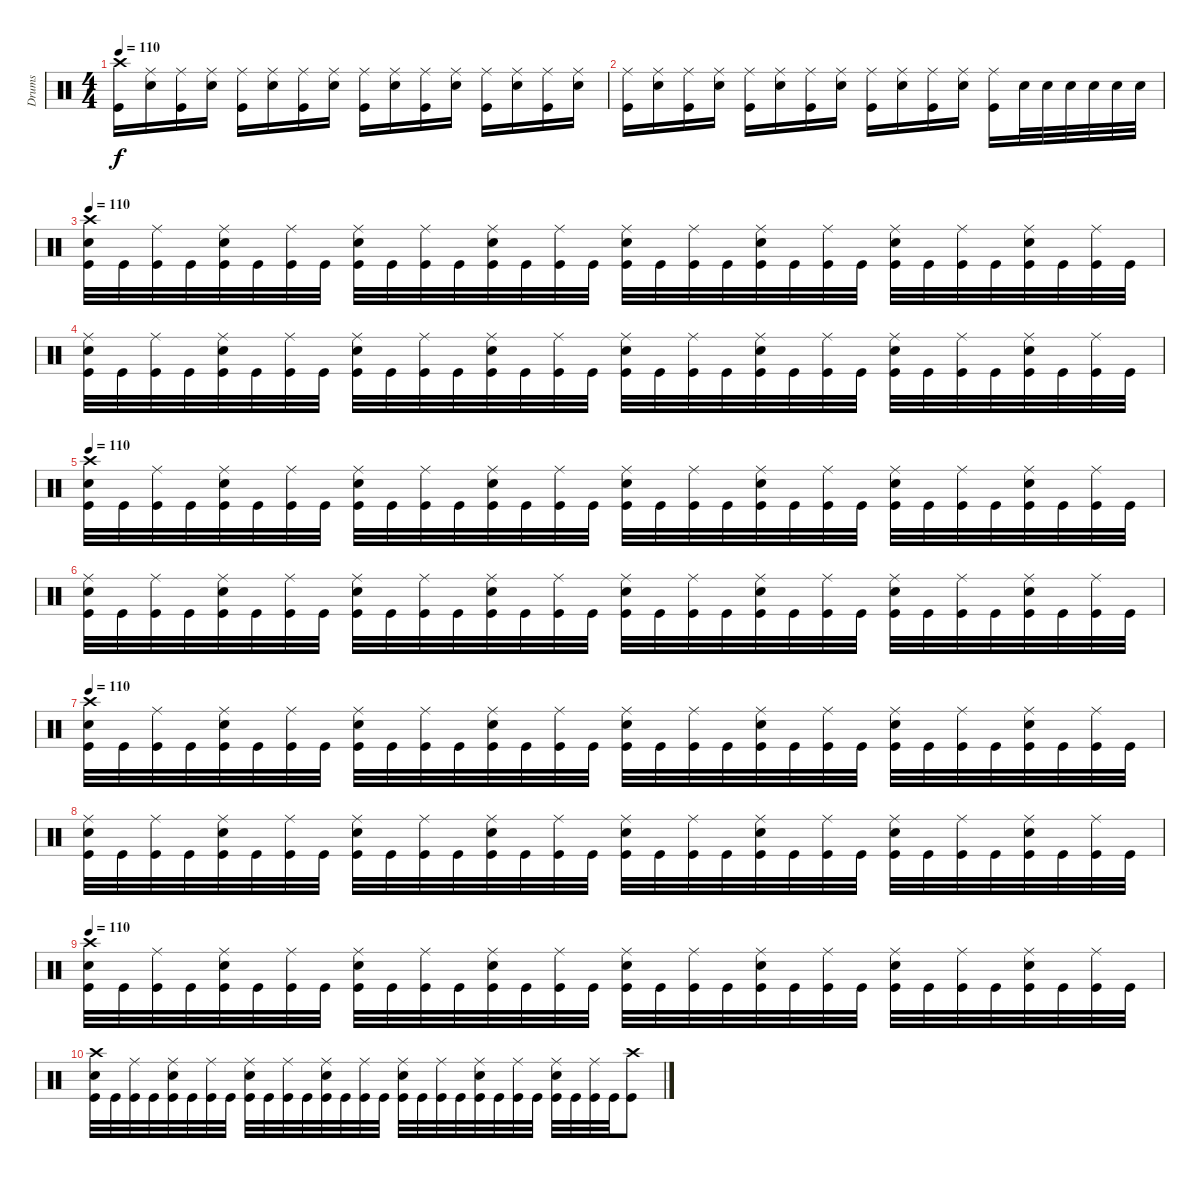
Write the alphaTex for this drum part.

\track ("Drums" "Drums") {instrument percussion}
\staff {score}
\articulation defaults
\ts (4 4)
\tempo 110
\clef neutral
\ks c
("Crash high (hit)" "Kick (hit)").16{dy f} ("Ride (middle)" "Snare (hit) 2").16 ("Ride (middle)" "Kick (hit)").16 ("Ride (middle)" "Snare (hit) 2").16 ("Ride (middle)" "Kick (hit)").16 ("Ride (middle)" "Snare (hit) 2").16 ("Ride (middle)" "Kick (hit)").16 ("Ride (middle)" "Snare (hit) 2").16 ("Ride (middle)" "Kick (hit)").16 ("Ride (middle)" "Snare (hit) 2").16 ("Ride (middle)" "Kick (hit)").16 ("Ride (middle)" "Snare (hit) 2").16 ("Ride (middle)" "Kick (hit)").16 ("Ride (middle)" "Snare (hit) 2").16 ("Ride (middle)" "Kick (hit)").16 ("Ride (middle)" "Snare (hit) 2").16 |
("Ride (middle)" "Kick (hit)").16 ("Ride (middle)" "Snare (hit) 2").16 ("Ride (middle)" "Kick (hit)").16 ("Ride (middle)" "Snare (hit) 2").16 ("Ride (middle)" "Kick (hit)").16 ("Ride (middle)" "Snare (hit) 2").16 ("Ride (middle)" "Kick (hit)").16 ("Ride (middle)" "Snare (hit) 2").16 ("Ride (middle)" "Kick (hit)").16 ("Ride (middle)" "Snare (hit) 2").16 ("Ride (middle)" "Kick (hit)").16 ("Ride (middle)" "Snare (hit) 2").16 ("Ride (middle)" "Kick (hit)").16 "Snare (hit) 2".32 "Snare (hit) 2".32 "Snare (hit) 2".32 "Snare (hit) 2".32 "Snare (hit) 2".32 "Snare (hit) 2".32 |
\tempo 110
("Crash high (hit)" "Snare (hit) 2" "Kick (hit)").32 "Kick (hit)".32 ("Ride (middle)" "Kick (hit)").32 "Kick (hit)".32 ("Ride (middle)" "Snare (hit) 2" "Kick (hit)").32 "Kick (hit)".32 ("Ride (middle)" "Kick (hit)").32 "Kick (hit)".32 ("Ride (middle)" "Snare (hit) 2" "Kick (hit)").32 "Kick (hit)".32 ("Ride (middle)" "Kick (hit)").32 "Kick (hit)".32 ("Ride (middle)" "Snare (hit) 2" "Kick (hit)").32 "Kick (hit)".32 ("Ride (middle)" "Kick (hit)").32 "Kick (hit)".32 ("Ride (middle)" "Snare (hit) 2" "Kick (hit)").32 "Kick (hit)".32 ("Ride (middle)" "Kick (hit)").32 "Kick (hit)".32 ("Ride (middle)" "Snare (hit) 2" "Kick (hit)").32 "Kick (hit)".32 ("Ride (middle)" "Kick (hit)").32 "Kick (hit)".32 ("Ride (middle)" "Snare (hit) 2" "Kick (hit)").32 "Kick (hit)".32 ("Ride (middle)" "Kick (hit)").32 "Kick (hit)".32 ("Ride (middle)" "Snare (hit) 2" "Kick (hit)").32 "Kick (hit)".32 ("Ride (middle)" "Kick (hit)").32 "Kick (hit)".32 |
("Ride (middle)" "Snare (hit) 2" "Kick (hit)").32 "Kick (hit)".32 ("Ride (middle)" "Kick (hit)").32 "Kick (hit)".32 ("Ride (middle)" "Snare (hit) 2" "Kick (hit)").32 "Kick (hit)".32 ("Ride (middle)" "Kick (hit)").32 "Kick (hit)".32 ("Ride (middle)" "Snare (hit) 2" "Kick (hit)").32 "Kick (hit)".32 ("Ride (middle)" "Kick (hit)").32 "Kick (hit)".32 ("Ride (middle)" "Snare (hit) 2" "Kick (hit)").32 "Kick (hit)".32 ("Ride (middle)" "Kick (hit)").32 "Kick (hit)".32 ("Ride (middle)" "Snare (hit) 2" "Kick (hit)").32 "Kick (hit)".32 ("Ride (middle)" "Kick (hit)").32 "Kick (hit)".32 ("Ride (middle)" "Snare (hit) 2" "Kick (hit)").32 "Kick (hit)".32 ("Ride (middle)" "Kick (hit)").32 "Kick (hit)".32 ("Ride (middle)" "Snare (hit) 2" "Kick (hit)").32 "Kick (hit)".32 ("Ride (middle)" "Kick (hit)").32 "Kick (hit)".32 ("Ride (middle)" "Snare (hit) 2" "Kick (hit)").32 "Kick (hit)".32 ("Ride (middle)" "Kick (hit)").32 "Kick (hit)".32 |
\tempo 110
("Crash high (hit)" "Snare (hit) 2" "Kick (hit)").32 "Kick (hit)".32 ("Ride (middle)" "Kick (hit)").32 "Kick (hit)".32 ("Ride (middle)" "Snare (hit) 2" "Kick (hit)").32 "Kick (hit)".32 ("Ride (middle)" "Kick (hit)").32 "Kick (hit)".32 ("Ride (middle)" "Snare (hit) 2" "Kick (hit)").32 "Kick (hit)".32 ("Ride (middle)" "Kick (hit)").32 "Kick (hit)".32 ("Ride (middle)" "Snare (hit) 2" "Kick (hit)").32 "Kick (hit)".32 ("Ride (middle)" "Kick (hit)").32 "Kick (hit)".32 ("Ride (middle)" "Snare (hit) 2" "Kick (hit)").32 "Kick (hit)".32 ("Ride (middle)" "Kick (hit)").32 "Kick (hit)".32 ("Ride (middle)" "Snare (hit) 2" "Kick (hit)").32 "Kick (hit)".32 ("Ride (middle)" "Kick (hit)").32 "Kick (hit)".32 ("Ride (middle)" "Snare (hit) 2" "Kick (hit)").32 "Kick (hit)".32 ("Ride (middle)" "Kick (hit)").32 "Kick (hit)".32 ("Ride (middle)" "Snare (hit) 2" "Kick (hit)").32 "Kick (hit)".32 ("Ride (middle)" "Kick (hit)").32 "Kick (hit)".32 |
("Ride (middle)" "Snare (hit) 2" "Kick (hit)").32 "Kick (hit)".32 ("Ride (middle)" "Kick (hit)").32 "Kick (hit)".32 ("Ride (middle)" "Snare (hit) 2" "Kick (hit)").32 "Kick (hit)".32 ("Ride (middle)" "Kick (hit)").32 "Kick (hit)".32 ("Ride (middle)" "Snare (hit) 2" "Kick (hit)").32 "Kick (hit)".32 ("Ride (middle)" "Kick (hit)").32 "Kick (hit)".32 ("Ride (middle)" "Snare (hit) 2" "Kick (hit)").32 "Kick (hit)".32 ("Ride (middle)" "Kick (hit)").32 "Kick (hit)".32 ("Ride (middle)" "Snare (hit) 2" "Kick (hit)").32 "Kick (hit)".32 ("Ride (middle)" "Kick (hit)").32 "Kick (hit)".32 ("Ride (middle)" "Snare (hit) 2" "Kick (hit)").32 "Kick (hit)".32 ("Ride (middle)" "Kick (hit)").32 "Kick (hit)".32 ("Ride (middle)" "Snare (hit) 2" "Kick (hit)").32 "Kick (hit)".32 ("Ride (middle)" "Kick (hit)").32 "Kick (hit)".32 ("Ride (middle)" "Snare (hit) 2" "Kick (hit)").32 "Kick (hit)".32 ("Ride (middle)" "Kick (hit)").32 "Kick (hit)".32 |
\tempo 110
("Crash high (hit)" "Snare (hit) 2" "Kick (hit)").32 "Kick (hit)".32 ("Ride (middle)" "Kick (hit)").32 "Kick (hit)".32 ("Ride (middle)" "Snare (hit) 2" "Kick (hit)").32 "Kick (hit)".32 ("Ride (middle)" "Kick (hit)").32 "Kick (hit)".32 ("Ride (middle)" "Snare (hit) 2" "Kick (hit)").32 "Kick (hit)".32 ("Ride (middle)" "Kick (hit)").32 "Kick (hit)".32 ("Ride (middle)" "Snare (hit) 2" "Kick (hit)").32 "Kick (hit)".32 ("Ride (middle)" "Kick (hit)").32 "Kick (hit)".32 ("Ride (middle)" "Snare (hit) 2" "Kick (hit)").32 "Kick (hit)".32 ("Ride (middle)" "Kick (hit)").32 "Kick (hit)".32 ("Ride (middle)" "Snare (hit) 2" "Kick (hit)").32 "Kick (hit)".32 ("Ride (middle)" "Kick (hit)").32 "Kick (hit)".32 ("Ride (middle)" "Snare (hit) 2" "Kick (hit)").32 "Kick (hit)".32 ("Ride (middle)" "Kick (hit)").32 "Kick (hit)".32 ("Ride (middle)" "Snare (hit) 2" "Kick (hit)").32 "Kick (hit)".32 ("Ride (middle)" "Kick (hit)").32 "Kick (hit)".32 |
("Ride (middle)" "Snare (hit) 2" "Kick (hit)").32 "Kick (hit)".32 ("Ride (middle)" "Kick (hit)").32 "Kick (hit)".32 ("Ride (middle)" "Snare (hit) 2" "Kick (hit)").32 "Kick (hit)".32 ("Ride (middle)" "Kick (hit)").32 "Kick (hit)".32 ("Ride (middle)" "Snare (hit) 2" "Kick (hit)").32 "Kick (hit)".32 ("Ride (middle)" "Kick (hit)").32 "Kick (hit)".32 ("Ride (middle)" "Snare (hit) 2" "Kick (hit)").32 "Kick (hit)".32 ("Ride (middle)" "Kick (hit)").32 "Kick (hit)".32 ("Ride (middle)" "Snare (hit) 2" "Kick (hit)").32 "Kick (hit)".32 ("Ride (middle)" "Kick (hit)").32 "Kick (hit)".32 ("Ride (middle)" "Snare (hit) 2" "Kick (hit)").32 "Kick (hit)".32 ("Ride (middle)" "Kick (hit)").32 "Kick (hit)".32 ("Ride (middle)" "Snare (hit) 2" "Kick (hit)").32 "Kick (hit)".32 ("Ride (middle)" "Kick (hit)").32 "Kick (hit)".32 ("Ride (middle)" "Snare (hit) 2" "Kick (hit)").32 "Kick (hit)".32 ("Ride (middle)" "Kick (hit)").32 "Kick (hit)".32 |
\tempo 110
("Crash high (hit)" "Snare (hit) 2" "Kick (hit)").32 "Kick (hit)".32 ("Ride (middle)" "Kick (hit)").32 "Kick (hit)".32 ("Ride (middle)" "Snare (hit) 2" "Kick (hit)").32 "Kick (hit)".32 ("Ride (middle)" "Kick (hit)").32 "Kick (hit)".32 ("Ride (middle)" "Snare (hit) 2" "Kick (hit)").32 "Kick (hit)".32 ("Ride (middle)" "Kick (hit)").32 "Kick (hit)".32 ("Ride (middle)" "Snare (hit) 2" "Kick (hit)").32 "Kick (hit)".32 ("Ride (middle)" "Kick (hit)").32 "Kick (hit)".32 ("Ride (middle)" "Snare (hit) 2" "Kick (hit)").32 "Kick (hit)".32 ("Ride (middle)" "Kick (hit)").32 "Kick (hit)".32 ("Ride (middle)" "Snare (hit) 2" "Kick (hit)").32 "Kick (hit)".32 ("Ride (middle)" "Kick (hit)").32 "Kick (hit)".32 ("Ride (middle)" "Snare (hit) 2" "Kick (hit)").32 "Kick (hit)".32 ("Ride (middle)" "Kick (hit)").32 "Kick (hit)".32 ("Ride (middle)" "Snare (hit) 2" "Kick (hit)").32 "Kick (hit)".32 ("Ride (middle)" "Kick (hit)").32 "Kick (hit)".32 |
("Crash high (hit)" "Snare (hit) 2" "Kick (hit)").32 "Kick (hit)".32 ("Ride (middle)" "Kick (hit)").32 "Kick (hit)".32 ("Ride (middle)" "Snare (hit) 2" "Kick (hit)").32 "Kick (hit)".32 ("Ride (middle)" "Kick (hit)").32 "Kick (hit)".32 ("Ride (middle)" "Snare (hit) 2" "Kick (hit)").32 "Kick (hit)".32 ("Ride (middle)" "Kick (hit)").32 "Kick (hit)".32 ("Ride (middle)" "Snare (hit) 2" "Kick (hit)").32 "Kick (hit)".32 ("Ride (middle)" "Kick (hit)").32 "Kick (hit)".32 ("Ride (middle)" "Snare (hit) 2" "Kick (hit)").32 "Kick (hit)".32 ("Ride (middle)" "Kick (hit)").32 "Kick (hit)".32 ("Ride (middle)" "Snare (hit) 2" "Kick (hit)").32 "Kick (hit)".32 ("Ride (middle)" "Kick (hit)").32 "Kick (hit)".32 ("Ride (middle)" "Snare (hit) 2" "Kick (hit)").32 "Kick (hit)".32 ("Ride (middle)" "Kick (hit)").32 "Kick (hit)".32 ("Crash high (hit)" "Kick (hit)").8
